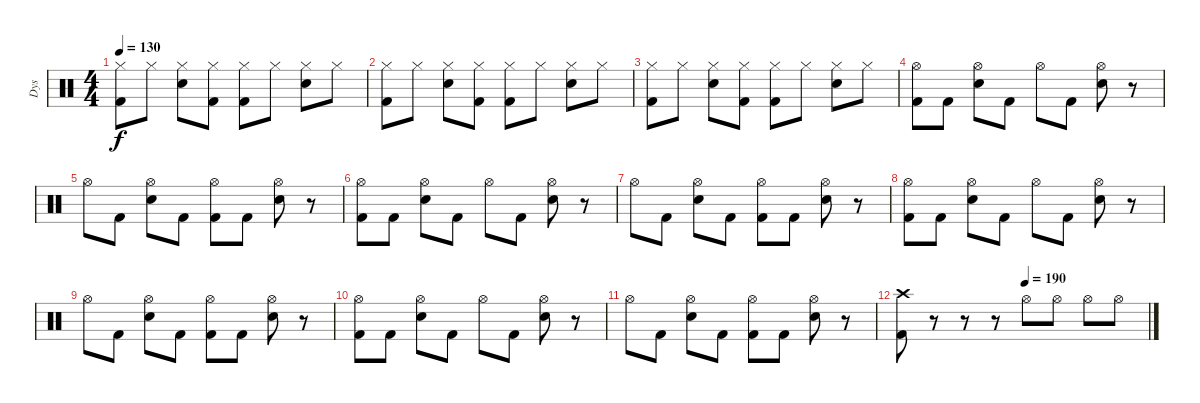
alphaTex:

\track ("Dys" "Dys") {instrument percussion}
\staff {score}
\articulation defaults
\ts (4 4)
\tempo 130
\clef neutral
\ks c
("Hi-Hat (closed)" "Kick (hit) 2").8{dy f} "Hi-Hat (closed)".8 ("Hi-Hat (closed)" "Electric Snare (hit)").8 ("Hi-Hat (closed)" "Kick (hit) 2").8 ("Hi-Hat (closed)" "Kick (hit) 2").8 "Hi-Hat (closed)".8 ("Hi-Hat (closed)" "Electric Snare (hit)").8 "Hi-Hat (closed)".8 |
("Hi-Hat (closed)" "Kick (hit) 2").8 "Hi-Hat (closed)".8 ("Hi-Hat (closed)" "Electric Snare (hit)").8 ("Hi-Hat (closed)" "Kick (hit) 2").8 ("Hi-Hat (closed)" "Kick (hit) 2").8 "Hi-Hat (closed)".8 ("Hi-Hat (closed)" "Electric Snare (hit)").8 "Hi-Hat (closed)".8 |
("Hi-Hat (closed)" "Kick (hit) 2").8 "Hi-Hat (closed)".8 ("Hi-Hat (closed)" "Electric Snare (hit)").8 ("Hi-Hat (closed)" "Kick (hit) 2").8 ("Hi-Hat (closed)" "Kick (hit) 2").8 "Hi-Hat (closed)".8 ("Hi-Hat (closed)" "Electric Snare (hit)").8 "Hi-Hat (closed)".8 |
("Hi-Hat (open)" "Kick (hit) 2").8 "Kick (hit) 2".8 ("Hi-Hat (open)" "Electric Snare (hit)").8 "Kick (hit) 2".8 "Hi-Hat (open)".8 "Kick (hit) 2".8 ("Hi-Hat (open)" "Electric Snare (hit)").8 r.8 |
"Hi-Hat (open)".8 "Kick (hit) 2".8 ("Hi-Hat (open)" "Electric Snare (hit)").8 "Kick (hit) 2".8 ("Hi-Hat (open)" "Kick (hit) 2").8 "Kick (hit) 2".8 ("Hi-Hat (open)" "Electric Snare (hit)").8 r.8 |
("Hi-Hat (open)" "Kick (hit) 2").8 "Kick (hit) 2".8 ("Hi-Hat (open)" "Electric Snare (hit)").8 "Kick (hit) 2".8 "Hi-Hat (open)".8 "Kick (hit) 2".8 ("Hi-Hat (open)" "Electric Snare (hit)").8 r.8 |
"Hi-Hat (open)".8 "Kick (hit) 2".8 ("Hi-Hat (open)" "Electric Snare (hit)").8 "Kick (hit) 2".8 ("Hi-Hat (open)" "Kick (hit) 2").8 "Kick (hit) 2".8 ("Hi-Hat (open)" "Electric Snare (hit)").8 r.8 |
("Hi-Hat (open)" "Kick (hit) 2").8 "Kick (hit) 2".8 ("Hi-Hat (open)" "Electric Snare (hit)").8 "Kick (hit) 2".8 "Hi-Hat (open)".8 "Kick (hit) 2".8 ("Hi-Hat (open)" "Electric Snare (hit)").8 r.8 |
"Hi-Hat (open)".8 "Kick (hit) 2".8 ("Hi-Hat (open)" "Electric Snare (hit)").8 "Kick (hit) 2".8 ("Hi-Hat (open)" "Kick (hit) 2").8 "Kick (hit) 2".8 ("Hi-Hat (open)" "Electric Snare (hit)").8 r.8 |
("Hi-Hat (open)" "Kick (hit) 2").8 "Kick (hit) 2".8 ("Hi-Hat (open)" "Electric Snare (hit)").8 "Kick (hit) 2".8 "Hi-Hat (open)".8 "Kick (hit) 2".8 ("Hi-Hat (open)" "Electric Snare (hit)").8 r.8 |
"Hi-Hat (open)".8 "Kick (hit) 2".8 ("Hi-Hat (open)" "Electric Snare (hit)").8 "Kick (hit) 2".8 ("Hi-Hat (open)" "Kick (hit) 2").8 "Kick (hit) 2".8 ("Hi-Hat (open)" "Electric Snare (hit)").8 r.8 |
\tempo (190 0.5)
("Crash high (hit)" "Kick (hit) 2").8 r.8 r.8 r.8 "Hi-Hat (open)".8 "Hi-Hat (open)".8 "Hi-Hat (open)".8 "Hi-Hat (open)".8
